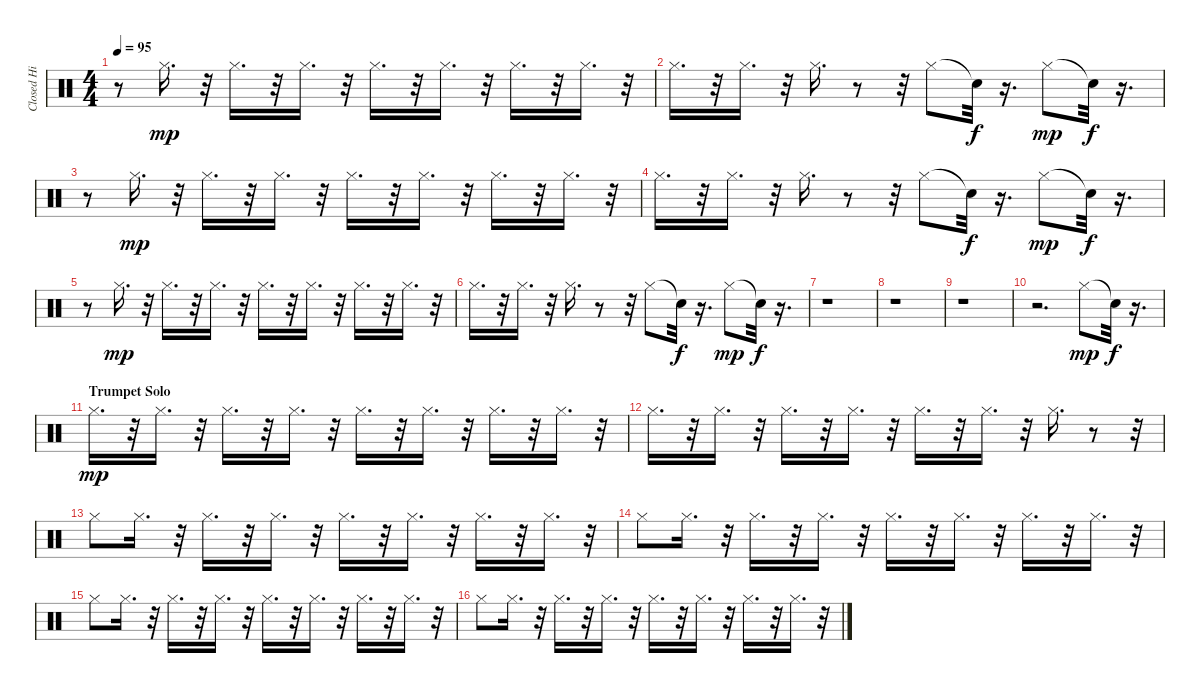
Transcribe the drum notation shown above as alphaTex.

\track ("Closed Hi Hat" "Closed Hi ") {instrument percussion}
\staff {score}
\articulation defaults
\ts (4 4)
\tempo 95
\clef neutral
\ks c
r.8{dy f} "Hi-Hat (closed)".16{d dy mp} r.32 "Hi-Hat (closed)".16{d} r.32 "Hi-Hat (closed)".16{d} r.32 "Hi-Hat (closed)".16{d} r.32 "Hi-Hat (closed)".16{d} r.32 "Hi-Hat (closed)".16{d} r.32 "Hi-Hat (closed)".16{d} r.32 |
"Hi-Hat (closed)".16{d} r.32 "Hi-Hat (closed)".16{d} r.32 "Hi-Hat (closed)".16{d} r.8 r.32 "Hi-Hat (closed)".8 "Snare (hit)"{t}.32{dy f} r.16{d} "Hi-Hat (closed)".8{dy mp} "Snare (hit)"{t}.32{dy f} r.16{d} |
r.8 "Hi-Hat (closed)".16{d dy mp} r.32 "Hi-Hat (closed)".16{d} r.32 "Hi-Hat (closed)".16{d} r.32 "Hi-Hat (closed)".16{d} r.32 "Hi-Hat (closed)".16{d} r.32 "Hi-Hat (closed)".16{d} r.32 "Hi-Hat (closed)".16{d} r.32 |
"Hi-Hat (closed)".16{d} r.32 "Hi-Hat (closed)".16{d} r.32 "Hi-Hat (closed)".16{d} r.8 r.32 "Hi-Hat (closed)".8 "Snare (hit)"{t}.32{dy f} r.16{d} "Hi-Hat (closed)".8{dy mp} "Snare (hit)"{t}.32{dy f} r.16{d} |
r.8 "Hi-Hat (closed)".16{d dy mp} r.32 "Hi-Hat (closed)".16{d} r.32 "Hi-Hat (closed)".16{d} r.32 "Hi-Hat (closed)".16{d} r.32 "Hi-Hat (closed)".16{d} r.32 "Hi-Hat (closed)".16{d} r.32 "Hi-Hat (closed)".16{d} r.32 |
"Hi-Hat (closed)".16{d} r.32 "Hi-Hat (closed)".16{d} r.32 "Hi-Hat (closed)".16{d} r.8 r.32 "Hi-Hat (closed)".8 "Snare (hit)"{t}.32{dy f} r.16{d} "Hi-Hat (closed)".8{dy mp} "Snare (hit)"{t}.32{dy f} r.16{d} |
r.1 |
r.1 |
r.1 |
r.2{d} "Hi-Hat (closed)".8{dy mp} "Snare (hit)"{t}.32{dy f} r.16{d} |
\section ("" "Trumpet Solo")
"Hi-Hat (closed)".16{d dy mp} r.32 "Hi-Hat (closed)".16{d} r.32 "Hi-Hat (closed)".16{d} r.32 "Hi-Hat (closed)".16{d} r.32 "Hi-Hat (closed)".16{d} r.32 "Hi-Hat (closed)".16{d} r.32 "Hi-Hat (closed)".16{d} r.32 "Hi-Hat (closed)".16{d} r.32 |
"Hi-Hat (closed)".16{d} r.32 "Hi-Hat (closed)".16{d} r.32 "Hi-Hat (closed)".16{d} r.32 "Hi-Hat (closed)".16{d} r.32 "Hi-Hat (closed)".16{d} r.32 "Hi-Hat (closed)".16{d} r.32 "Hi-Hat (closed)".16{d} r.8 r.32 |
"Hi-Hat (closed)".8 "Hi-Hat (closed)".16{d} r.32 "Hi-Hat (closed)".16{d} r.32 "Hi-Hat (closed)".16{d} r.32 "Hi-Hat (closed)".16{d} r.32 "Hi-Hat (closed)".16{d} r.32 "Hi-Hat (closed)".16{d} r.32 "Hi-Hat (closed)".16{d} r.32 |
"Hi-Hat (closed)".8 "Hi-Hat (closed)".16{d} r.32 "Hi-Hat (closed)".16{d} r.32 "Hi-Hat (closed)".16{d} r.32 "Hi-Hat (closed)".16{d} r.32 "Hi-Hat (closed)".16{d} r.32 "Hi-Hat (closed)".16{d} r.32 "Hi-Hat (closed)".16{d} r.32 |
"Hi-Hat (closed)".8 "Hi-Hat (closed)".16{d} r.32 "Hi-Hat (closed)".16{d} r.32 "Hi-Hat (closed)".16{d} r.32 "Hi-Hat (closed)".16{d} r.32 "Hi-Hat (closed)".16{d} r.32 "Hi-Hat (closed)".16{d} r.32 "Hi-Hat (closed)".16{d} r.32 |
"Hi-Hat (closed)".8 "Hi-Hat (closed)".16{d} r.32 "Hi-Hat (closed)".16{d} r.32 "Hi-Hat (closed)".16{d} r.32 "Hi-Hat (closed)".16{d} r.32 "Hi-Hat (closed)".16{d} r.32 "Hi-Hat (closed)".16{d} r.32 "Hi-Hat (closed)".16{d} r.32
